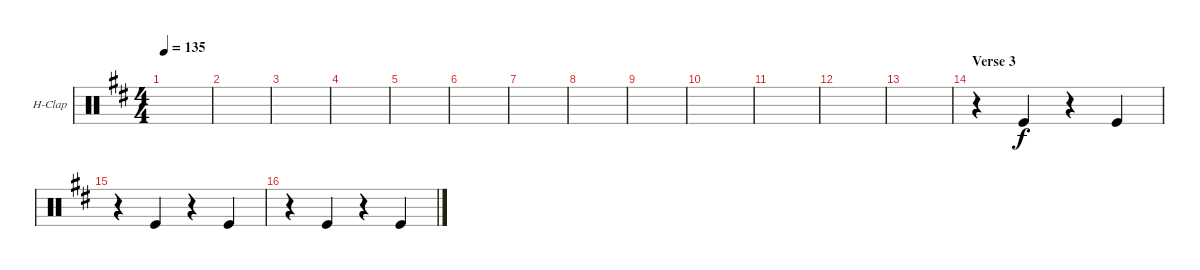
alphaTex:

\defaultSystemsLayout 4
\bracketExtendMode groupsimilarinstruments
\firstSystemTrackNameOrientation horizontal
\otherSystemsTrackNameOrientation horizontal
\track ("Hand Clap" "H-Clap") {instrument percussion}
\staff {score}
\articulation defaults
\ts (4 4)
\tempo 135
\clef neutral
\ks bminor
|
|
|
|
|
|
|
|
|
|
|
|
|
\section ("" "Verse 3")
r.4 "Kick (hit)".4 r.4 "Kick (hit)".4 |
r.4 "Kick (hit)".4 r.4 "Kick (hit)".4 |
r.4 "Kick (hit)".4 r.4 "Kick (hit)".4
